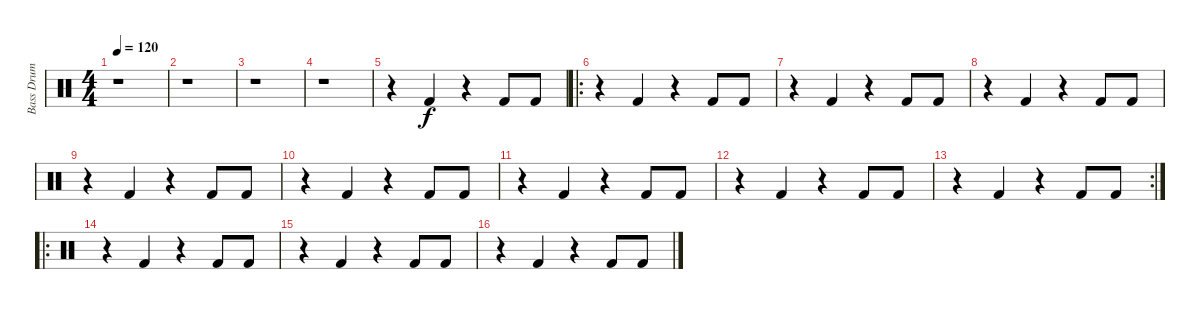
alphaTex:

\track ("Bass Drum" "Bass Drum") {instrument percussion}
\staff {score}
\articulation defaults
\ts (4 4)
\tempo 120
\clef neutral
\ks c
r.1{dy f} |
r.1 |
r.1 |
r.1 |
r.4 "Kick (hit) 2".4 r.4 "Kick (hit) 2".8 "Kick (hit) 2".8 |
\ro
r.4 "Kick (hit) 2".4 r.4 "Kick (hit) 2".8 "Kick (hit) 2".8 |
r.4 "Kick (hit) 2".4 r.4 "Kick (hit) 2".8 "Kick (hit) 2".8 |
r.4 "Kick (hit) 2".4 r.4 "Kick (hit) 2".8 "Kick (hit) 2".8 |
r.4 "Kick (hit) 2".4 r.4 "Kick (hit) 2".8 "Kick (hit) 2".8 |
r.4 "Kick (hit) 2".4 r.4 "Kick (hit) 2".8 "Kick (hit) 2".8 |
r.4 "Kick (hit) 2".4 r.4 "Kick (hit) 2".8 "Kick (hit) 2".8 |
r.4 "Kick (hit) 2".4 r.4 "Kick (hit) 2".8 "Kick (hit) 2".8 |
\rc 2
r.4 "Kick (hit) 2".4 r.4 "Kick (hit) 2".8 "Kick (hit) 2".8 |
\ro
r.4 "Kick (hit) 2".4 r.4 "Kick (hit) 2".8 "Kick (hit) 2".8 |
r.4 "Kick (hit) 2".4 r.4 "Kick (hit) 2".8 "Kick (hit) 2".8 |
r.4 "Kick (hit) 2".4 r.4 "Kick (hit) 2".8 "Kick (hit) 2".8
